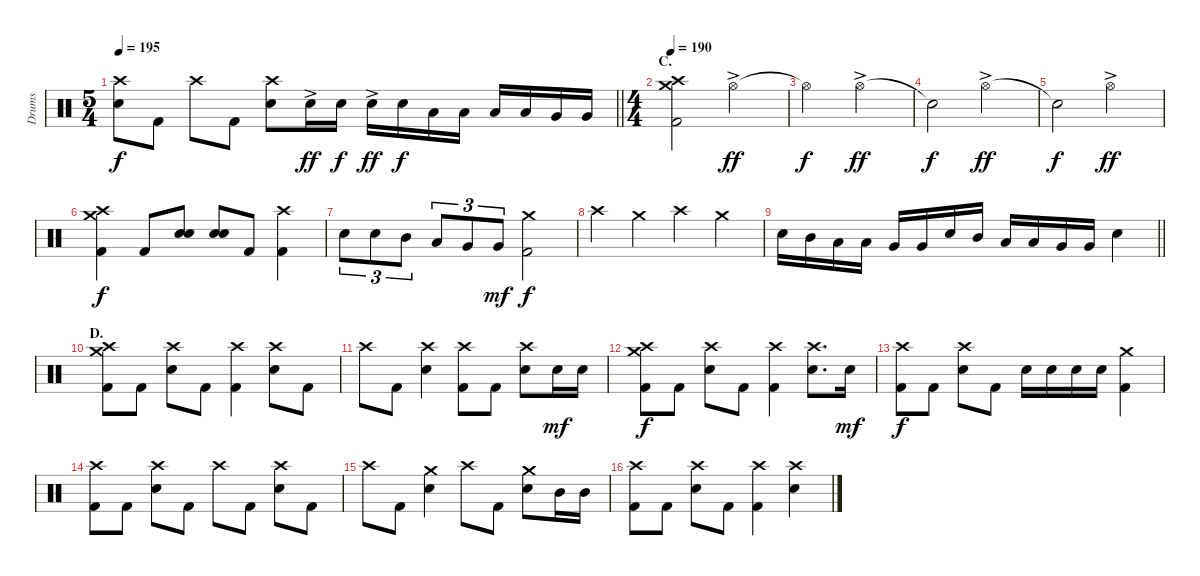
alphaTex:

\track ("Drums" "Drums") {instrument percussion}
\staff {score}
\articulation defaults
\ts (5 4)
\tempo 195
\clef neutral
\barLineRight lightlight
\ks c
("Crash high (hit)" "Electric Snare (hit)").8{dy f} "Kick (hit) 2".8 "Crash high (hit)".8 "Kick (hit) 2".8 ("Crash high (hit)" "Electric Snare (hit)").8 "Electric Snare (hit)"{ac}.16{dy ff} "Electric Snare (hit)".16{dy f} "Electric Snare (hit)"{ac}.16{dy ff} "Electric Snare (hit)".16{dy f} "Low Tom (hit)".16 "Low Tom (hit)".16 "Low Tom (hit)".16 "Low Tom (hit)".16 "Very Low Tom (hit)".16 "Very Low Tom (hit)".16 |
\ts (4 4)
\section ("" "C.")
\tempo 190
("Crash medium (hit)" "Crash high (hit)" "Kick (hit) 2").2 "Hi-Hat (open)"{ac}.2{dy ff} |
"Hi-Hat (open)"{t}.2{dy f} "Hi-Hat (open)"{ac}.2{dy ff} |
"Snare (hit)"{t}.2{dy f} "Hi-Hat (open)"{ac}.2{dy ff} |
"Snare (hit)"{t}.2{dy f} "Hi-Hat (open)"{ac}.2{dy ff} |
("Crash medium (hit)" "Crash high (hit)" "Kick (hit) 2").4{dy f} "Kick (hit) 2".8 ("Electric Snare (hit)" "Electric Snare (hit)").8{bu 120} ("Electric Snare (hit)" "Electric Snare (hit)").8{bu 120} "Kick (hit) 2".8 ("Crash high (hit)" "Kick (hit) 2").4 |
"Electric Snare (hit)".8{tu (3 2)} "Electric Snare (hit)".8{tu (3 2)} "Mid Tom (hit)".8{tu (3 2)} "Low Tom (hit)".8{tu (3 2)} "Very Low Tom (hit)".8{tu (3 2)} "Very Low Tom (hit)".8{tu (3 2) dy mf} ("Crash medium (hit)" "Kick (hit) 2").2{dy f} |
"Crash high (hit)".4 "Crash medium (hit)".4 "Crash high (hit)".4 "Crash medium (hit)".4 |
\barLineRight lightlight "Electric Snare (hit)".16 "Mid Tom (hit)".16 "Low Tom (hit)".16 "Low Tom (hit)".16 "Very Low Tom (hit)".16 "Very Low Tom (hit)".16 "Electric Snare (hit)".16 "Mid Tom (hit)".16 "Low Tom (hit)".16 "Low Tom (hit)".16 "Very Low Tom (hit)".16 "Very Low Tom (hit)".16 "Electric Snare (hit)".4
|
\section ("" "D.")
("Crash medium (hit)" "Crash high (hit)" "Kick (hit) 2").8 "Kick (hit) 2".8 ("Crash high (hit)" "Electric Snare (hit)").8 "Kick (hit) 2".8 ("Crash high (hit)" "Kick (hit) 2").4 ("Crash high (hit)" "Electric Snare (hit)").8 "Kick (hit) 2".8 |
"Crash high (hit)".8 "Kick (hit) 2".8 ("Crash high (hit)" "Electric Snare (hit)").4 ("Crash high (hit)" "Kick (hit) 2").8 "Kick (hit) 2".8 ("Crash high (hit)" "Electric Snare (hit)").8 "Electric Snare (hit)".16{dy mf} "Electric Snare (hit)".16 |
("Crash medium (hit)" "Crash high (hit)" "Kick (hit) 2").8{dy f} "Kick (hit) 2".8 ("Crash high (hit)" "Electric Snare (hit)").8 "Kick (hit) 2".8 ("Crash high (hit)" "Kick (hit) 2").4 ("Crash high (hit)" "Electric Snare (hit)").8{d} "Electric Snare (hit)".16{dy mf} |
("Crash high (hit)" "Kick (hit) 2").8{dy f} "Kick (hit) 2".8 ("Crash high (hit)" "Electric Snare (hit)").8 "Kick (hit) 2".8 "Electric Snare (hit)".16 "Electric Snare (hit)".16 "Electric Snare (hit)".16 "Electric Snare (hit)".16 ("Crash medium (hit)" "Kick (hit) 2").4 |
("Crash high (hit)" "Kick (hit) 2").8 "Kick (hit) 2".8 ("Crash high (hit)" "Electric Snare (hit)").8 "Kick (hit) 2".8 "Crash high (hit)".8 "Kick (hit) 2".8 ("Crash high (hit)" "Electric Snare (hit)").8 "Kick (hit) 2".8 |
"Crash high (hit)".8 "Kick (hit) 2".8 ("Crash medium (hit)" "Electric Snare (hit)").4 "Crash high (hit)".8 "Kick (hit) 2".8 ("Crash medium (hit)" "Electric Snare (hit)").8 "Mid Tom (hit)".16 "Mid Tom (hit)".16 |
("Crash high (hit)" "Kick (hit) 2").8 "Kick (hit) 2".8 ("Crash high (hit)" "Electric Snare (hit)").8 "Kick (hit) 2".8 ("Crash high (hit)" "Kick (hit) 2").4 ("Crash high (hit)" "Electric Snare (hit)").4
